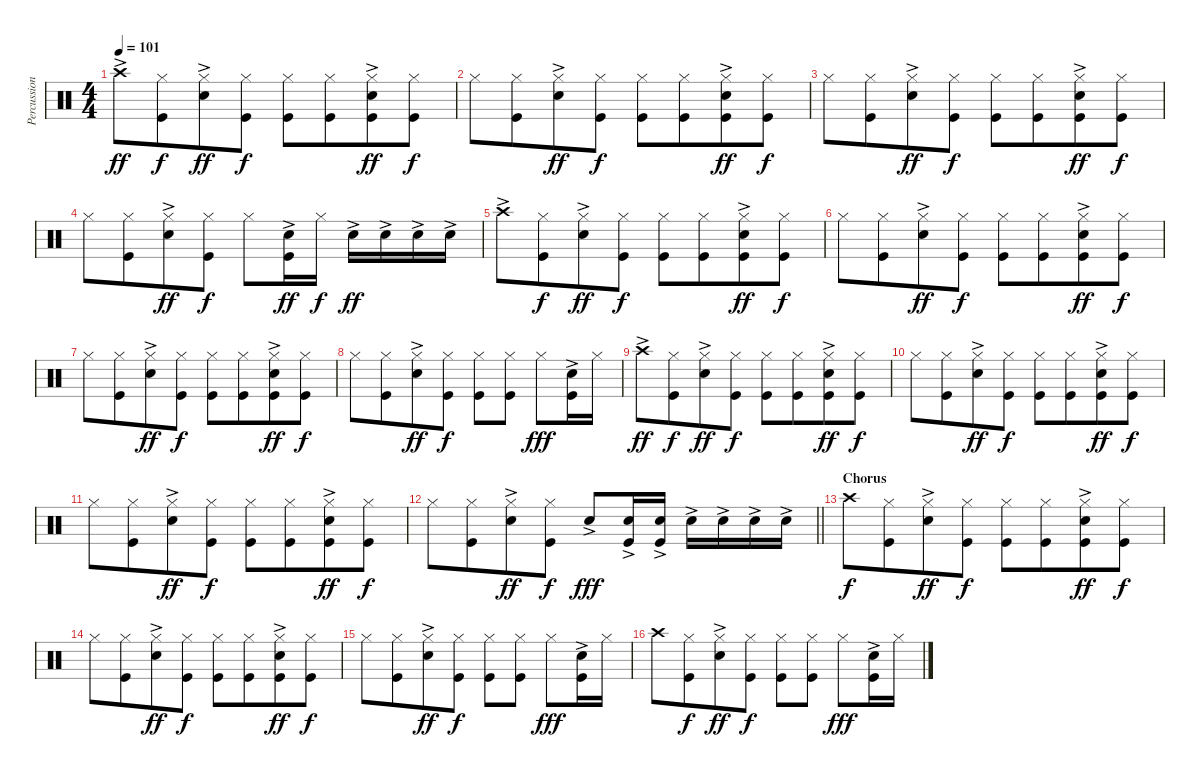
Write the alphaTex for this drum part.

\track ("Percussion" "Percussion") {instrument percussion}
\staff {score}
\articulation defaults
\ts (4 4)
\tempo 101
\clef neutral
\ks c "Crash high (hit)"{ac}.8{dy ff}
("Hi-Hat (closed)" "Kick (hit)").8{dy f beam merge} ("Hi-Hat (closed)" "Snare (hit) 2"{ac}).8{dy ff} ("Hi-Hat (closed)" "Kick (hit)").8{dy f beam split} ("Hi-Hat (closed)" "Kick (hit)").8 ("Hi-Hat (closed)" "Kick (hit)").8{beam merge} ("Hi-Hat (closed)" "Snare (hit) 2"{ac} "Kick (hit)").8{dy ff} ("Hi-Hat (closed)" "Kick (hit)").8{dy f} |
"Hi-Hat (closed)".8 ("Hi-Hat (closed)" "Kick (hit)").8{beam merge} ("Hi-Hat (closed)" "Snare (hit) 2"{ac}).8{dy ff} ("Hi-Hat (closed)" "Kick (hit)").8{dy f} ("Hi-Hat (closed)" "Kick (hit)").8 ("Hi-Hat (closed)" "Kick (hit)").8{beam merge} ("Hi-Hat (closed)" "Snare (hit) 2"{ac} "Kick (hit)").8{dy ff} ("Hi-Hat (closed)" "Kick (hit)").8{dy f} |
"Hi-Hat (closed)".8 ("Hi-Hat (closed)" "Kick (hit)").8{beam merge} ("Hi-Hat (closed)" "Snare (hit) 2"{ac}).8{dy ff} ("Hi-Hat (closed)" "Kick (hit)").8{dy f} ("Hi-Hat (closed)" "Kick (hit)").8 ("Hi-Hat (closed)" "Kick (hit)").8{beam merge} ("Hi-Hat (closed)" "Snare (hit) 2"{ac} "Kick (hit)").8{dy ff} ("Hi-Hat (closed)" "Kick (hit)").8{dy f} |
"Hi-Hat (closed)".8 ("Hi-Hat (closed)" "Kick (hit)").8{beam merge} ("Hi-Hat (closed)" "Snare (hit) 2"{ac}).8{dy ff} ("Hi-Hat (closed)" "Kick (hit)").8{dy f} "Hi-Hat (closed)".8 ("Snare (hit) 2"{ac} "Kick (hit)").16{dy ff} "Hi-Hat (closed)".16{dy f} "Snare (hit) 2"{ac}.16{dy ff} "Snare (hit) 2"{ac}.16 "Snare (hit) 2"{ac}.16 "Snare (hit) 2"{ac}.16 |
"Crash high (hit)"{ac}.8 ("Hi-Hat (closed)" "Kick (hit)").8{dy f beam merge} ("Hi-Hat (closed)" "Snare (hit) 2"{ac}).8{dy ff} ("Hi-Hat (closed)" "Kick (hit)").8{dy f beam split} ("Hi-Hat (closed)" "Kick (hit)").8 ("Hi-Hat (closed)" "Kick (hit)").8{beam merge} ("Hi-Hat (closed)" "Snare (hit) 2"{ac} "Kick (hit)").8{dy ff} ("Hi-Hat (closed)" "Kick (hit)").8{dy f} |
"Hi-Hat (closed)".8 ("Hi-Hat (closed)" "Kick (hit)").8{beam merge} ("Hi-Hat (closed)" "Snare (hit) 2"{ac}).8{dy ff} ("Hi-Hat (closed)" "Kick (hit)").8{dy f} ("Hi-Hat (closed)" "Kick (hit)").8 ("Hi-Hat (closed)" "Kick (hit)").8{beam merge} ("Hi-Hat (closed)" "Snare (hit) 2"{ac} "Kick (hit)").8{dy ff} ("Hi-Hat (closed)" "Kick (hit)").8{dy f} |
"Hi-Hat (closed)".8 ("Hi-Hat (closed)" "Kick (hit)").8{beam merge} ("Hi-Hat (closed)" "Snare (hit) 2"{ac}).8{dy ff} ("Hi-Hat (closed)" "Kick (hit)").8{dy f} ("Hi-Hat (closed)" "Kick (hit)").8 ("Hi-Hat (closed)" "Kick (hit)").8{beam merge} ("Hi-Hat (closed)" "Snare (hit) 2"{ac} "Kick (hit)").8{dy ff} ("Hi-Hat (closed)" "Kick (hit)").8{dy f} |
"Hi-Hat (closed)".8 ("Hi-Hat (closed)" "Kick (hit)").8{beam merge} ("Hi-Hat (closed)" "Snare (hit) 2"{ac}).8{dy ff} ("Hi-Hat (closed)" "Kick (hit)").8{dy f} ("Hi-Hat (closed)" "Kick (hit)").8 ("Hi-Hat (closed)" "Kick (hit)").8 "Hi-Hat (closed)".8{dy fff} ("Snare (hit) 2"{ac} "Kick (hit)").16 "Hi-Hat (closed)".16 |
"Crash high (hit)"{ac}.8{dy ff} ("Hi-Hat (closed)" "Kick (hit)").8{dy f beam merge} ("Hi-Hat (closed)" "Snare (hit) 2"{ac}).8{dy ff} ("Hi-Hat (closed)" "Kick (hit)").8{dy f beam split} ("Hi-Hat (closed)" "Kick (hit)").8 ("Hi-Hat (closed)" "Kick (hit)").8{beam merge} ("Hi-Hat (closed)" "Snare (hit) 2"{ac} "Kick (hit)").8{dy ff} ("Hi-Hat (closed)" "Kick (hit)").8{dy f} |
"Hi-Hat (closed)".8 ("Hi-Hat (closed)" "Kick (hit)").8{beam merge} ("Hi-Hat (closed)" "Snare (hit) 2"{ac}).8{dy ff} ("Hi-Hat (closed)" "Kick (hit)").8{dy f} ("Hi-Hat (closed)" "Kick (hit)").8 ("Hi-Hat (closed)" "Kick (hit)").8{beam merge} ("Hi-Hat (closed)" "Snare (hit) 2"{ac} "Kick (hit)").8{dy ff} ("Hi-Hat (closed)" "Kick (hit)").8{dy f} |
"Hi-Hat (closed)".8 ("Hi-Hat (closed)" "Kick (hit)").8{beam merge} ("Hi-Hat (closed)" "Snare (hit) 2"{ac}).8{dy ff} ("Hi-Hat (closed)" "Kick (hit)").8{dy f} ("Hi-Hat (closed)" "Kick (hit)").8 ("Hi-Hat (closed)" "Kick (hit)").8{beam merge} ("Hi-Hat (closed)" "Snare (hit) 2"{ac} "Kick (hit)").8{dy ff} ("Hi-Hat (closed)" "Kick (hit)").8{dy f} |
\barLineRight lightlight "Hi-Hat (closed)".8
("Hi-Hat (closed)" "Kick (hit)").8{beam merge} ("Hi-Hat (closed)" "Snare (hit) 2"{ac}).8{dy ff} ("Hi-Hat (closed)" "Kick (hit)").8{dy f} "Snare (hit) 2"{ac}.8{dy fff} ("Snare (hit) 2"{ac} "Kick (hit)").16 ("Snare (hit) 2"{ac} "Kick (hit)").16 "Snare (hit) 2"{ac}.16 "Snare (hit) 2"{ac}.16 "Snare (hit) 2"{ac}.16 "Snare (hit) 2"{ac}.16 |
\section ("" "Chorus")
"Crash high (hit)".8{dy f} ("Hi-Hat (closed)" "Kick (hit)").8{beam merge} ("Hi-Hat (closed)" "Snare (hit) 2"{ac}).8{dy ff} ("Hi-Hat (closed)" "Kick (hit)").8{dy f} ("Hi-Hat (closed)" "Kick (hit)").8 ("Hi-Hat (closed)" "Kick (hit)").8{beam merge} ("Hi-Hat (closed)" "Snare (hit) 2"{ac} "Kick (hit)").8{dy ff} ("Hi-Hat (closed)" "Kick (hit)").8{dy f} |
"Hi-Hat (closed)".8 ("Hi-Hat (closed)" "Kick (hit)").8{beam merge} ("Hi-Hat (closed)" "Snare (hit) 2"{ac}).8{dy ff} ("Hi-Hat (closed)" "Kick (hit)").8{dy f} ("Hi-Hat (closed)" "Kick (hit)").8 ("Hi-Hat (closed)" "Kick (hit)").8{beam merge} ("Hi-Hat (closed)" "Snare (hit) 2"{ac} "Kick (hit)").8{dy ff} ("Hi-Hat (closed)" "Kick (hit)").8{dy f} |
"Hi-Hat (closed)".8 ("Hi-Hat (closed)" "Kick (hit)").8{beam merge} ("Hi-Hat (closed)" "Snare (hit) 2"{ac}).8{dy ff} ("Hi-Hat (closed)" "Kick (hit)").8{dy f} ("Hi-Hat (closed)" "Kick (hit)").8 ("Hi-Hat (closed)" "Kick (hit)").8 "Hi-Hat (closed)".8{dy fff} ("Snare (hit) 2"{ac} "Kick (hit)").16 "Hi-Hat (closed)".16 |
"Crash high (hit)".8 ("Hi-Hat (closed)" "Kick (hit)").8{dy f beam merge} ("Hi-Hat (closed)" "Snare (hit) 2"{ac}).8{dy ff} ("Hi-Hat (closed)" "Kick (hit)").8{dy f} ("Hi-Hat (closed)" "Kick (hit)").8 ("Hi-Hat (closed)" "Kick (hit)").8 "Hi-Hat (closed)".8{dy fff} ("Snare (hit) 2"{ac} "Kick (hit)").16 "Hi-Hat (closed)".16
